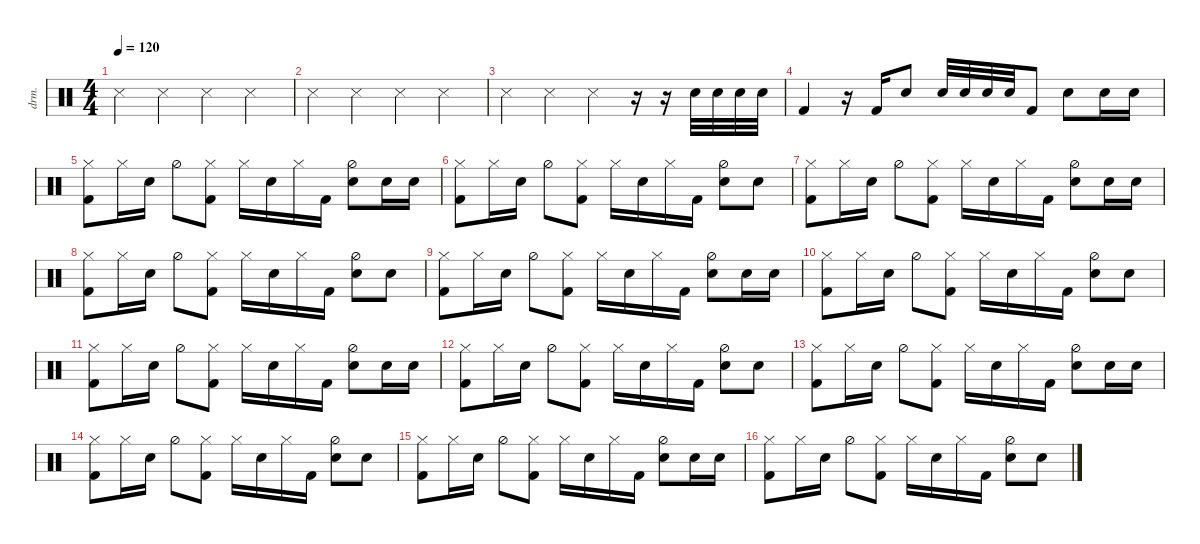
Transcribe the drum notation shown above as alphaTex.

\defaultSystemsLayout 4
\hideDynamics
\bracketExtendMode nobrackets
\otherSystemsTrackNameOrientation horizontal
\track ("Drumkit" "drm.") {instrument percussion}
\staff {score}
\articulation defaults
\ts (4 4)
\tempo 120
\clef neutral
\ks c "Snare (side stick) 3".4{dy mf beam Down} "Snare (side stick) 3".4{beam Down} "Snare (side stick) 3".4{beam Down} "Snare (side stick) 3".4{beam Down}
|
"Snare (side stick) 3".4{beam Down} "Snare (side stick) 3".4{beam Down} "Snare (side stick) 3".4{beam Down} "Snare (side stick) 3".4{beam Down} |
"Snare (side stick) 3".4{beam Down} "Snare (side stick) 3".4{beam Down} "Snare (side stick) 3".4{beam Down} r.16{beam Down} r.16{beam Down} "Snare (hit) 2".32{beam Down} "Snare (hit) 2".32{beam Down} "Snare (hit) 2".32{beam Down} "Snare (hit) 2".32{beam Down} |
"Kick (hit) 2".4{beam Up} r.16{beam Up} "Kick (hit) 2".16{beam Up} "Snare (hit) 2".8{beam Up} "Snare (hit) 2".32{beam Up} "Snare (hit) 2".32{beam Up} "Snare (hit) 2".32{beam Up} "Snare (hit) 2".32{beam Up} "Kick (hit) 2".8{beam Up} "Snare (hit) 2".8{beam Down} "Snare (hit) 2".16{beam Down} "Snare (hit) 2".16{beam Down} |
("Kick (hit) 2" "Hi-Hat (closed)").8{beam Down} "Hi-Hat (closed)".16{beam Down} "Snare (hit) 2".16{beam Down} "Hi-Hat (half)".8{beam Down} ("Kick (hit) 2" "Hi-Hat (closed)").8{beam Down} "Hi-Hat (closed)".16{beam Down} "Snare (hit) 2".16{beam Down} "Hi-Hat (closed)".16{beam Down} "Kick (hit) 2".16{beam Down} ("Snare (hit) 2" "Hi-Hat (half)").8{beam Down} "Snare (hit) 2".16{beam Down} "Snare (hit) 2".16{beam Down} |
("Kick (hit) 2" "Hi-Hat (closed)").8{beam Down} "Hi-Hat (closed)".16{beam Down} "Snare (hit) 2".16{beam Down} "Hi-Hat (half)".8{beam Down} ("Kick (hit) 2" "Hi-Hat (closed)").8{beam Down} "Hi-Hat (closed)".16{beam Down} "Snare (hit) 2".16{beam Down} "Hi-Hat (closed)".16{beam Down} "Kick (hit) 2".16{beam Down} ("Snare (hit) 2" "Hi-Hat (half)").8{beam Down} "Snare (hit) 2".8{beam Down} |
("Kick (hit) 2" "Hi-Hat (closed)").8{beam Down} "Hi-Hat (closed)".16{beam Down} "Snare (hit) 2".16{beam Down} "Hi-Hat (half)".8{beam Down} ("Kick (hit) 2" "Hi-Hat (closed)").8{beam Down} "Hi-Hat (closed)".16{beam Down} "Snare (hit) 2".16{beam Down} "Hi-Hat (closed)".16{beam Down} "Kick (hit) 2".16{beam Down} ("Snare (hit) 2" "Hi-Hat (half)").8{beam Down} "Snare (hit) 2".16{beam Down} "Snare (hit) 2".16{beam Down} |
("Kick (hit) 2" "Hi-Hat (closed)").8{beam Down} "Hi-Hat (closed)".16{beam Down} "Snare (hit) 2".16{beam Down} "Hi-Hat (half)".8{beam Down} ("Kick (hit) 2" "Hi-Hat (closed)").8{beam Down} "Hi-Hat (closed)".16{beam Down} "Snare (hit) 2".16{beam Down} "Hi-Hat (closed)".16{beam Down} "Kick (hit) 2".16{beam Down} ("Snare (hit) 2" "Hi-Hat (half)").8{beam Down} "Snare (hit) 2".8{beam Down} |
("Kick (hit) 2" "Hi-Hat (closed)").8{beam Down} "Hi-Hat (closed)".16{beam Down} "Snare (hit) 2".16{beam Down} "Hi-Hat (half)".8{beam Down} ("Kick (hit) 2" "Hi-Hat (closed)").8{beam Down} "Hi-Hat (closed)".16{beam Down} "Snare (hit) 2".16{beam Down} "Hi-Hat (closed)".16{beam Down} "Kick (hit) 2".16{beam Down} ("Snare (hit) 2" "Hi-Hat (half)").8{beam Down} "Snare (hit) 2".16{beam Down} "Snare (hit) 2".16{beam Down} |
("Kick (hit) 2" "Hi-Hat (closed)").8{beam Down} "Hi-Hat (closed)".16{beam Down} "Snare (hit) 2".16{beam Down} "Hi-Hat (half)".8{beam Down} ("Kick (hit) 2" "Hi-Hat (closed)").8{beam Down} "Hi-Hat (closed)".16{beam Down} "Snare (hit) 2".16{beam Down} "Hi-Hat (closed)".16{beam Down} "Kick (hit) 2".16{beam Down} ("Snare (hit) 2" "Hi-Hat (half)").8{beam Down} "Snare (hit) 2".8{beam Down} |
("Kick (hit) 2" "Hi-Hat (closed)").8{beam Down} "Hi-Hat (closed)".16{beam Down} "Snare (hit) 2".16{beam Down} "Hi-Hat (half)".8{beam Down} ("Kick (hit) 2" "Hi-Hat (closed)").8{beam Down} "Hi-Hat (closed)".16{beam Down} "Snare (hit) 2".16{beam Down} "Hi-Hat (closed)".16{beam Down} "Kick (hit) 2".16{beam Down} ("Snare (hit) 2" "Hi-Hat (half)").8{beam Down} "Snare (hit) 2".16{beam Down} "Snare (hit) 2".16{beam Down} |
("Kick (hit) 2" "Hi-Hat (closed)").8{beam Down} "Hi-Hat (closed)".16{beam Down} "Snare (hit) 2".16{beam Down} "Hi-Hat (half)".8{beam Down} ("Kick (hit) 2" "Hi-Hat (closed)").8{beam Down} "Hi-Hat (closed)".16{beam Down} "Snare (hit) 2".16{beam Down} "Hi-Hat (closed)".16{beam Down} "Kick (hit) 2".16{beam Down} ("Snare (hit) 2" "Hi-Hat (half)").8{beam Down} "Snare (hit) 2".8{beam Down} |
("Kick (hit) 2" "Hi-Hat (closed)").8{beam Down} "Hi-Hat (closed)".16{beam Down} "Snare (hit) 2".16{beam Down} "Hi-Hat (half)".8{beam Down} ("Kick (hit) 2" "Hi-Hat (closed)").8{beam Down} "Hi-Hat (closed)".16{beam Down} "Snare (hit) 2".16{beam Down} "Hi-Hat (closed)".16{beam Down} "Kick (hit) 2".16{beam Down} ("Snare (hit) 2" "Hi-Hat (half)").8{beam Down} "Snare (hit) 2".16{beam Down} "Snare (hit) 2".16{beam Down} |
("Kick (hit) 2" "Hi-Hat (closed)").8{beam Down} "Hi-Hat (closed)".16{beam Down} "Snare (hit) 2".16{beam Down} "Hi-Hat (half)".8{beam Down} ("Kick (hit) 2" "Hi-Hat (closed)").8{beam Down} "Hi-Hat (closed)".16{beam Down} "Snare (hit) 2".16{beam Down} "Hi-Hat (closed)".16{beam Down} "Kick (hit) 2".16{beam Down} ("Snare (hit) 2" "Hi-Hat (half)").8{beam Down} "Snare (hit) 2".8{beam Down} |
("Kick (hit) 2" "Hi-Hat (closed)").8{beam Down} "Hi-Hat (closed)".16{beam Down} "Snare (hit) 2".16{beam Down} "Hi-Hat (half)".8{beam Down} ("Kick (hit) 2" "Hi-Hat (closed)").8{beam Down} "Hi-Hat (closed)".16{beam Down} "Snare (hit) 2".16{beam Down} "Hi-Hat (closed)".16{beam Down} "Kick (hit) 2".16{beam Down} ("Snare (hit) 2" "Hi-Hat (half)").8{beam Down} "Snare (hit) 2".16{beam Down} "Snare (hit) 2".16{beam Down} |
("Kick (hit) 2" "Hi-Hat (closed)").8{beam Down} "Hi-Hat (closed)".16{beam Down} "Snare (hit) 2".16{beam Down} "Hi-Hat (half)".8{beam Down} ("Kick (hit) 2" "Hi-Hat (closed)").8{beam Down} "Hi-Hat (closed)".16{beam Down} "Snare (hit) 2".16{beam Down} "Hi-Hat (closed)".16{beam Down} "Kick (hit) 2".16{beam Down} ("Snare (hit) 2" "Hi-Hat (half)").8{beam Down} "Snare (hit) 2".8{beam Down}
